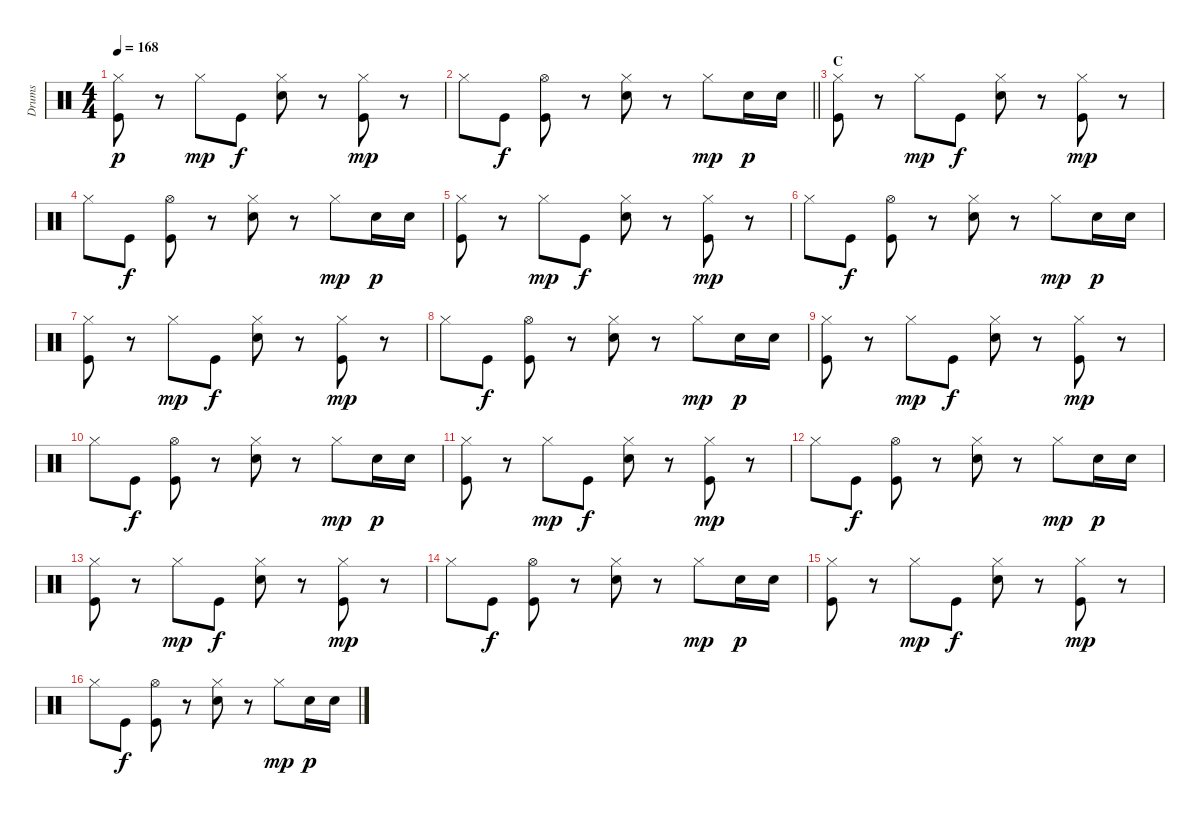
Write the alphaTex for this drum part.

\track ("Drums" "Drums") {instrument percussion}
\staff {score}
\articulation defaults
\ts (4 4)
\tempo 168
\clef neutral
\ks c
("Hi-Hat (closed)" "Kick (hit)").8{dy p} r.8 "Hi-Hat (closed)".8{dy mp} "Kick (hit)".8{dy f} ("Hi-Hat (closed)" "Electric Snare (hit)").8 r.8 ("Hi-Hat (closed)" "Kick (hit)").8{dy mp} r.8 |
\barLineRight lightlight "Hi-Hat (closed)".8 "Kick (hit)".8{dy f}
("Hi-Hat (open)" "Kick (hit)").8 r.8 ("Hi-Hat (closed)" "Electric Snare (hit)").8 r.8 "Hi-Hat (closed)".8{dy mp} "Electric Snare (hit)".16{dy p} "Electric Snare (hit)".16 |
\section ("" "C")
("Hi-Hat (closed)" "Kick (hit)").8 r.8 "Hi-Hat (closed)".8{dy mp} "Kick (hit)".8{dy f} ("Hi-Hat (closed)" "Electric Snare (hit)").8 r.8 ("Hi-Hat (closed)" "Kick (hit)").8{dy mp} r.8 |
"Hi-Hat (closed)".8 "Kick (hit)".8{dy f} ("Hi-Hat (open)" "Kick (hit)").8 r.8 ("Hi-Hat (closed)" "Electric Snare (hit)").8 r.8 "Hi-Hat (closed)".8{dy mp} "Electric Snare (hit)".16{dy p} "Electric Snare (hit)".16 |
("Hi-Hat (closed)" "Kick (hit)").8 r.8 "Hi-Hat (closed)".8{dy mp} "Kick (hit)".8{dy f} ("Hi-Hat (closed)" "Electric Snare (hit)").8 r.8 ("Hi-Hat (closed)" "Kick (hit)").8{dy mp} r.8 |
"Hi-Hat (closed)".8 "Kick (hit)".8{dy f} ("Hi-Hat (open)" "Kick (hit)").8 r.8 ("Hi-Hat (closed)" "Electric Snare (hit)").8 r.8 "Hi-Hat (closed)".8{dy mp} "Electric Snare (hit)".16{dy p} "Electric Snare (hit)".16 |
("Hi-Hat (closed)" "Kick (hit)").8 r.8 "Hi-Hat (closed)".8{dy mp} "Kick (hit)".8{dy f} ("Hi-Hat (closed)" "Electric Snare (hit)").8 r.8 ("Hi-Hat (closed)" "Kick (hit)").8{dy mp} r.8 |
"Hi-Hat (closed)".8 "Kick (hit)".8{dy f} ("Hi-Hat (open)" "Kick (hit)").8 r.8 ("Hi-Hat (closed)" "Electric Snare (hit)").8 r.8 "Hi-Hat (closed)".8{dy mp} "Electric Snare (hit)".16{dy p} "Electric Snare (hit)".16 |
("Hi-Hat (closed)" "Kick (hit)").8 r.8 "Hi-Hat (closed)".8{dy mp} "Kick (hit)".8{dy f} ("Hi-Hat (closed)" "Electric Snare (hit)").8 r.8 ("Hi-Hat (closed)" "Kick (hit)").8{dy mp} r.8 |
"Hi-Hat (closed)".8 "Kick (hit)".8{dy f} ("Hi-Hat (open)" "Kick (hit)").8 r.8 ("Hi-Hat (closed)" "Electric Snare (hit)").8 r.8 "Hi-Hat (closed)".8{dy mp} "Electric Snare (hit)".16{dy p} "Electric Snare (hit)".16 |
("Hi-Hat (closed)" "Kick (hit)").8 r.8 "Hi-Hat (closed)".8{dy mp} "Kick (hit)".8{dy f} ("Hi-Hat (closed)" "Electric Snare (hit)").8 r.8 ("Hi-Hat (closed)" "Kick (hit)").8{dy mp} r.8 |
"Hi-Hat (closed)".8 "Kick (hit)".8{dy f} ("Hi-Hat (open)" "Kick (hit)").8 r.8 ("Hi-Hat (closed)" "Electric Snare (hit)").8 r.8 "Hi-Hat (closed)".8{dy mp} "Electric Snare (hit)".16{dy p} "Electric Snare (hit)".16 |
("Hi-Hat (closed)" "Kick (hit)").8 r.8 "Hi-Hat (closed)".8{dy mp} "Kick (hit)".8{dy f} ("Hi-Hat (closed)" "Electric Snare (hit)").8 r.8 ("Hi-Hat (closed)" "Kick (hit)").8{dy mp} r.8 |
"Hi-Hat (closed)".8 "Kick (hit)".8{dy f} ("Hi-Hat (open)" "Kick (hit)").8 r.8 ("Hi-Hat (closed)" "Electric Snare (hit)").8 r.8 "Hi-Hat (closed)".8{dy mp} "Electric Snare (hit)".16{dy p} "Electric Snare (hit)".16 |
("Hi-Hat (closed)" "Kick (hit)").8 r.8 "Hi-Hat (closed)".8{dy mp} "Kick (hit)".8{dy f} ("Hi-Hat (closed)" "Electric Snare (hit)").8 r.8 ("Hi-Hat (closed)" "Kick (hit)").8{dy mp} r.8 |
"Hi-Hat (closed)".8 "Kick (hit)".8{dy f} ("Hi-Hat (open)" "Kick (hit)").8 r.8 ("Hi-Hat (closed)" "Electric Snare (hit)").8 r.8 "Hi-Hat (closed)".8{dy mp} "Electric Snare (hit)".16{dy p} "Electric Snare (hit)".16
